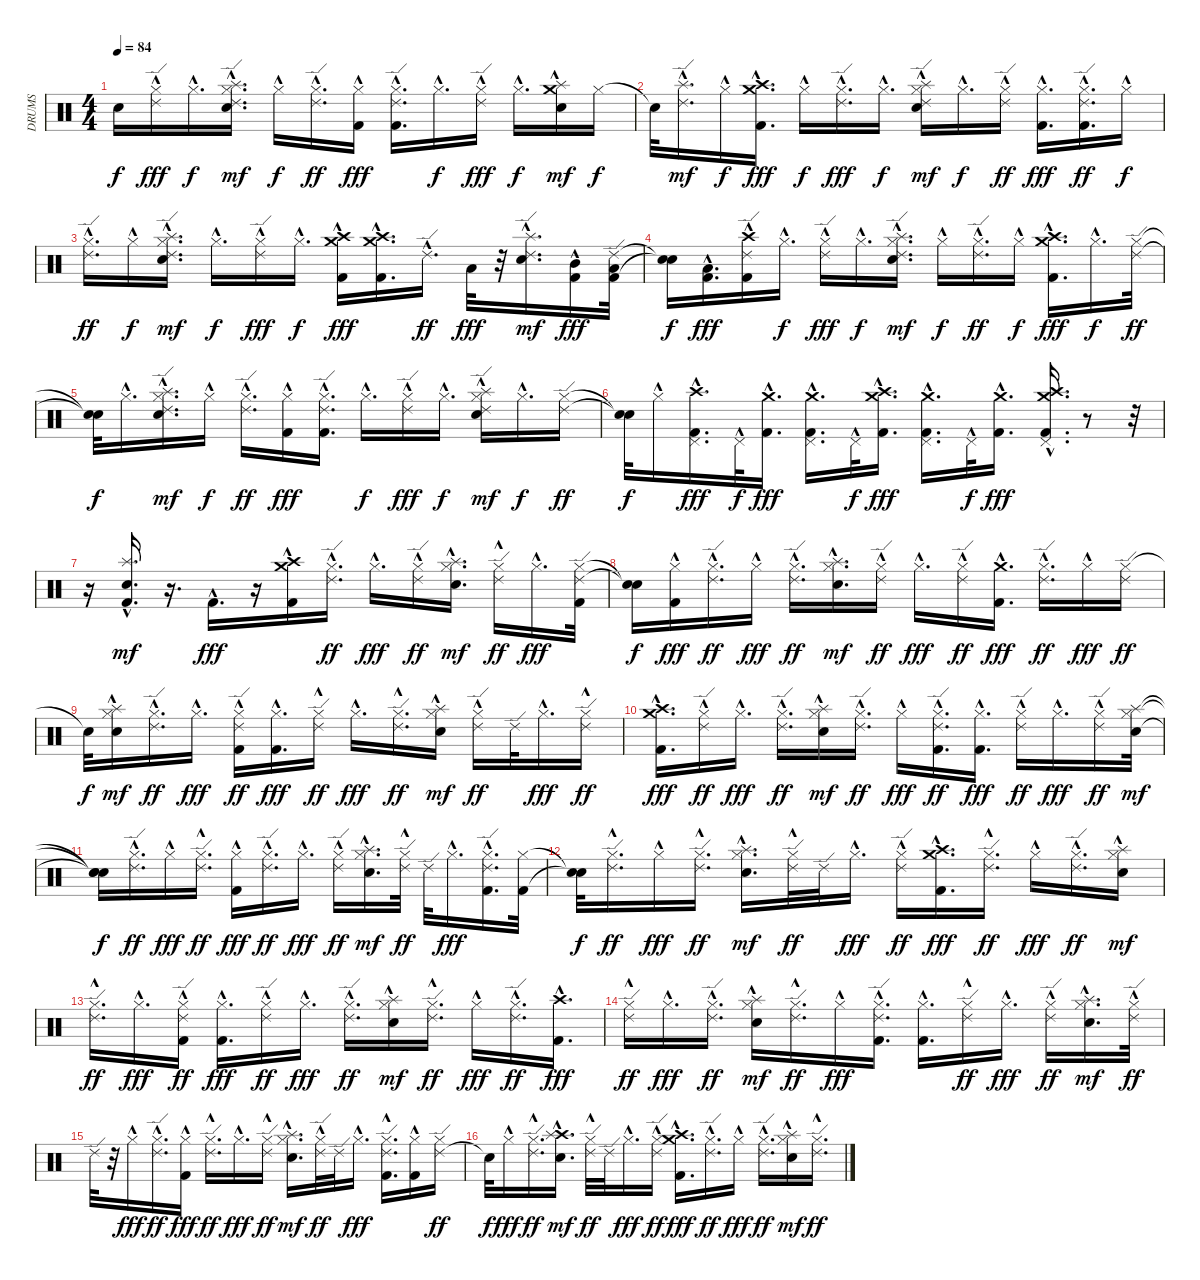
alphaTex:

\track ("DRUMS" "DRUMS") {instrument percussion}
\staff {score}
\articulation defaults
\ts (4 4)
\tempo 84
\clef neutral
\ks c "Snare (hit)"{t}.16{dy f}
("Ride (edge) 2"{hac} "Hi-Hat (closed)"{hac}).16{dy fff} "Hi-Hat (closed)"{hac}.16{d dy f} ("Hi-Hat (closed)"{hac} "Ride (edge) 2"{hac} "Snare (hit) 2"{hac} "Splash (hit)"{hac}).16{d dy mf} "Hi-Hat (closed)"{hac}.16{dy f} ("Hi-Hat (closed)"{hac} "Ride (edge) 2"{hac}).16{d dy ff} ("Kick (hit) 2"{hac} "Hi-Hat (closed)"{hac}).16{dy fff} ("Kick (hit) 2"{hac} "Ride (edge) 2"{hac} "Hi-Hat (closed)"{hac}).16{d} "Hi-Hat (closed)"{hac}.16{d dy f} ("Ride (edge) 2"{hac} "Hi-Hat (closed)"{hac}).16{dy fff} "Hi-Hat (closed)"{hac}.16{d dy f} ("Crash medium (hit)" "Snare (hit) 2"{hac} "Splash (hit)"{hac}).16{dy mf} "Hi-Hat (closed)".16{dy f} |
"Snare (hit)"{t}.32 ("Ride (edge) 2"{hac} "Splash (hit)").16{d dy mf} "Hi-Hat (closed)"{hac}.16{dy f} ("Crash medium (hit)" "Kick (hit) 2"{hac} "Crash high (hit)").16{d dy fff} "Hi-Hat (closed)"{hac}.16{dy f} ("Ride (edge) 2"{hac} "Hi-Hat (closed)"{hac}).16{d dy fff} "Hi-Hat (closed)"{hac}.16{d dy f} ("Hi-Hat (closed)"{hac} "Snare (hit) 2"{hac} "Ride (edge) 2"{hac} "Splash (hit)"{hac}).16{dy mf} "Hi-Hat (closed)"{hac}.16{d dy f} ("Hi-Hat (closed)"{hac} "Ride (edge) 2"{hac}).16{dy ff} ("Kick (hit) 2"{hac} "Hi-Hat (closed)"{hac}).16{d dy fff} ("Hi-Hat (closed)"{hac} "Kick (hit) 2"{hac} "Ride (edge) 2"{hac}).16{d dy ff} "Hi-Hat (closed)"{hac}.16{dy f} |
("Hi-Hat (closed)"{hac} "Ride (edge) 2"{hac}).16{d dy ff} "Hi-Hat (closed)"{hac}.16{dy f} ("Snare (hit) 2"{hac} "Ride (edge) 2"{hac} "Hi-Hat (closed)"{hac} "Splash (hit)"{hac}).16{d dy mf} "Hi-Hat (closed)"{hac}.16{d dy f} ("Ride (edge) 2"{hac} "Hi-Hat (closed)"{hac}).16{dy fff} "Hi-Hat (closed)"{hac}.16{d dy f} ("Crash high (hit)"{hac} "Crash medium (hit)"{hac} "Kick (hit) 2"{hac}).16{dy fff} ("Crash medium (hit)"{hac} "Crash high (hit)"{hac} "Kick (hit) 2"{hac}).16{d} "Ride (edge) 2"{hac}.16{d dy ff} "Low Tom (hit)".32{dy fff} r.32 ("Ride (edge) 2"{hac} "Snare (hit) 2"{hac} "Splash (hit)"{hac}).16{d dy mf} ("Kick (hit) 2"{hac} "Mid Tom (hit)").16{dy fff} ("Kick (hit) 2" "Ride (edge) 2" "Low Tom (hit)").32 |
("Snare (hit)"{t} "Snare (hit)"{t}).16{dy f} ("Low Floor Tom (hit)" "Kick (hit) 2"{hac}).16{d dy fff} ("Crash high (hit)" "Ride (edge) 2"{hac} "Kick (hit) 2"{hac}).16 "Hi-Hat (closed)"{hac}.16{d dy f} ("Ride (edge) 2"{hac} "Hi-Hat (closed)"{hac}).16{dy fff} "Hi-Hat (closed)"{hac}.16{d dy f} ("Snare (hit) 2"{hac} "Ride (edge) 2"{hac} "Hi-Hat (closed)"{hac} "Splash (hit)"{hac}).16{d dy mf} "Hi-Hat (closed)"{hac}.16{dy f} ("Hi-Hat (closed)"{hac} "Ride (edge) 2"{hac}).16{d dy ff} "Hi-Hat (closed)"{hac}.16{dy f} ("Crash medium (hit)" "Kick (hit) 2"{hac} "Crash high (hit)").16{d dy fff} "Hi-Hat (closed)"{hac}.16{d dy f} ("Hi-Hat (closed)" "Ride (edge) 2").32{dy ff} |
("Snare (hit)"{t} "Snare (hit)"{t}).32{dy f} "Hi-Hat (closed)"{hac}.16{d} ("Snare (hit) 2"{hac} "Hi-Hat (closed)"{hac} "Ride (edge) 2"{hac} "Splash (hit)"{hac}).16{d dy mf} "Hi-Hat (closed)"{hac}.16{dy f} ("Hi-Hat (closed)"{hac} "Ride (edge) 2"{hac}).16{d dy ff} ("Hi-Hat (closed)"{hac} "Kick (hit) 2"{hac}).16{dy fff} ("Hi-Hat (closed)"{hac} "Ride (edge) 2"{hac} "Kick (hit) 2"{hac}).16{d} "Hi-Hat (closed)"{hac}.16{d dy f} ("Ride (edge) 2"{hac} "Hi-Hat (closed)"{hac}).16{dy fff} "Hi-Hat (closed)"{hac}.16{d dy f} ("Hi-Hat (closed)"{hac} "Snare (hit) 2"{hac} "Ride (edge) 2"{hac} "Splash (hit)"{hac}).16{dy mf} "Hi-Hat (closed)"{hac}.16{d dy f} ("Hi-Hat (closed)" "Ride (edge) 2").16{dy ff} |
("Snare (hit)"{t} "Snare (hit)"{t}).32{dy f} "Hi-Hat (closed)"{hac}.16 ("Pedal Hi-Hat (hit)"{hac} "Kick (hit) 2"{hac} "Crash high (hit)"{hac}).16{d dy fff} "Pedal Hi-Hat (hit)"{hac}.32{dy f} ("Crash medium (hit)"{hac} "Kick (hit) 2"{hac}).16{d dy fff} ("Pedal Hi-Hat (hit)"{hac} "Kick (hit) 2"{hac} "Crash medium (hit)"{hac}).16{d} "Pedal Hi-Hat (hit)"{hac}.32{dy f} ("Crash high (hit)"{hac} "Crash medium (hit)"{hac} "Kick (hit) 2"{hac}).16{d dy fff} ("Pedal Hi-Hat (hit)"{hac} "Crash medium (hit)"{hac} "Kick (hit) 2"{hac}).16{d} "Pedal Hi-Hat (hit)"{hac}.32{dy f} ("Crash medium (hit)"{hac} "Kick (hit) 2"{hac}).16{d dy fff} ("Pedal Hi-Hat (hit)"{hac} "Crash medium (hit)"{hac} "Crash high (hit)"{hac} "Kick (hit) 2"{hac}).16{d} r.8 r.32 |
r.16 ("Snare (hit) 2"{hac} "Kick (hit) 2"{hac} "Splash (hit)"{hac}).16{d dy mf} r.16{d} "Kick (hit) 2"{hac}.16{d dy fff} r.16 ("Kick (hit) 2"{hac} "Crash medium (hit)"{hac} "Crash high (hit)").16 ("Hi-Hat (closed)"{hac} "Ride (edge) 2").16{d dy ff} "Hi-Hat (closed)"{hac}.16{d dy fff} ("Hi-Hat (closed)"{hac} "Ride (edge) 2").16{dy ff} ("Hi-Hat (closed)"{hac} "Snare (hit) 2"{hac} "Splash (hit)"{hac}).16{d dy mf} ("Ride (edge) 2" "Hi-Hat (closed)"{hac}).16{dy ff} "Hi-Hat (closed)"{hac}.16{d dy fff} ("Hi-Hat (closed)" "Ride (edge) 2" "Kick (hit) 2").32 |
("Snare (hit)"{t} "Snare (hit)"{t}).16{dy f} ("Kick (hit) 2"{hac} "Hi-Hat (closed)"{hac}).16{dy fff} ("Hi-Hat (closed)"{hac} "Ride (edge) 2").16{d dy ff} "Hi-Hat (closed)"{hac}.16{dy fff} ("Hi-Hat (closed)"{hac} "Ride (edge) 2").16{d dy ff} ("Snare (hit) 2"{hac} "Hi-Hat (closed)"{hac} "Splash (hit)"{hac}).16{d dy mf} ("Hi-Hat (closed)"{hac} "Ride (edge) 2").16{dy ff} "Hi-Hat (closed)"{hac}.16{d dy fff} ("Hi-Hat (closed)"{hac} "Ride (edge) 2").16{dy ff} ("Crash medium (hit)" "Kick (hit) 2"{hac}).16{d dy fff} ("Hi-Hat (closed)"{hac} "Ride (edge) 2").16{d dy ff} "Hi-Hat (closed)"{hac}.16{dy fff} ("Hi-Hat (closed)" "Ride (edge) 2").16{dy ff} |
"Snare (hit)"{t}.32{dy f} ("Snare (hit) 2"{hac} "Hi-Hat (closed)"{hac} "Splash (hit)"{hac}).16{dy mf} ("Hi-Hat (closed)"{hac} "Ride (edge) 2").16{d dy ff} "Hi-Hat (closed)"{hac}.16{d dy fff} ("Hi-Hat (closed)"{hac} "Kick (hit) 2"{hac} "Ride (edge) 2").16{dy ff} ("Hi-Hat (closed)"{hac} "Kick (hit) 2"{hac}).16{d dy fff} ("Ride (edge) 2" "Hi-Hat (closed)"{hac}).16{dy ff} "Hi-Hat (closed)"{hac}.16{d dy fff} ("Ride (edge) 2" "Hi-Hat (closed)"{hac}).16{d dy ff} ("Snare (hit) 2"{hac} "Hi-Hat (closed)"{hac} "Splash (hit)"{hac}).16{dy mf} ("Hi-Hat (closed)"{hac} "Ride (edge) 2").16{dy ff} "Ride (edge) 2".32 "Hi-Hat (closed)"{hac}.16{d dy fff} ("Ride (edge) 2" "Hi-Hat (closed)"{hac}).16{dy ff} |
("Kick (hit) 2"{hac} "Crash high (hit)"{hac} "Crash medium (hit)").16{d dy fff} ("Hi-Hat (closed)"{hac} "Ride (edge) 2").16{dy ff} "Hi-Hat (closed)"{hac}.16{d dy fff} ("Hi-Hat (closed)"{hac} "Ride (edge) 2").16{d dy ff} ("Snare (hit) 2"{hac} "Hi-Hat (closed)"{hac} "Splash (hit)"{hac}).16{dy mf} ("Hi-Hat (closed)"{hac} "Ride (edge) 2").16{d dy ff} "Hi-Hat (closed)"{hac}.16{dy fff} ("Hi-Hat (closed)"{hac} "Kick (hit) 2"{hac} "Ride (edge) 2").16{d dy ff} ("Kick (hit) 2"{hac} "Hi-Hat (closed)"{hac}).16{d dy fff} ("Hi-Hat (closed)"{hac} "Ride (edge) 2").16{dy ff} "Hi-Hat (closed)"{hac}.16{d dy fff} ("Hi-Hat (closed)"{hac} "Ride (edge) 2").16{dy ff} ("Snare (hit) 2" "Hi-Hat (closed)" "Splash (hit)").32{dy mf} |
("Snare (hit)"{t} "Snare (hit)"{t} "Snare (hit)"{t}).16{dy f} ("Hi-Hat (closed)"{hac} "Ride (edge) 2").16{d dy ff} "Hi-Hat (closed)"{hac}.16{dy fff} ("Ride (edge) 2" "Hi-Hat (closed)"{hac}).16{d dy ff} ("Kick (hit) 2"{hac} "Hi-Hat (closed)"{hac}).16{dy fff} ("Hi-Hat (closed)"{hac} "Ride (edge) 2").16{d dy ff} "Hi-Hat (closed)"{hac}.16{d dy fff} ("Hi-Hat (closed)"{hac} "Ride (edge) 2").16{dy ff} ("Hi-Hat (closed)"{hac} "Snare (hit) 2"{hac} "Splash (hit)"{hac}).16{d dy mf} ("Ride (edge) 2" "Hi-Hat (closed)"{hac}).32{dy ff} "Ride (edge) 2".32 "Hi-Hat (closed)"{hac}.16{d dy fff} ("Hi-Hat (closed)"{hac} "Ride (edge) 2" "Kick (hit) 2"{hac}).16{d} ("Kick (hit) 2" "Hi-Hat (closed)").32 |
("Snare (hit)"{t} "Snare (hit)"{t}).32{dy f} ("Ride (edge) 2" "Hi-Hat (closed)"{hac}).16{d dy ff} "Hi-Hat (closed)"{hac}.16{dy fff} ("Ride (edge) 2" "Hi-Hat (closed)"{hac}).16{d dy ff} ("Snare (hit) 2"{hac} "Hi-Hat (closed)"{hac} "Splash (hit)"{hac}).16{d dy mf} ("Ride (edge) 2" "Hi-Hat (closed)"{hac}).32{dy ff} "Ride (edge) 2".32 "Hi-Hat (closed)"{hac}.16{d dy fff} ("Hi-Hat (closed)"{hac} "Ride (edge) 2").16{dy ff} ("Kick (hit) 2"{hac} "Crash high (hit)"{hac} "Crash medium (hit)").16{d dy fff} ("Ride (edge) 2" "Hi-Hat (closed)"{hac}).16{d dy ff} "Hi-Hat (closed)"{hac}.16{dy fff} ("Hi-Hat (closed)"{hac} "Ride (edge) 2").16{d dy ff} ("Hi-Hat (closed)"{hac} "Snare (hit) 2"{hac} "Splash (hit)"{hac}).16{dy mf} |
("Ride (edge) 2" "Hi-Hat (closed)"{hac}).16{d dy ff} "Hi-Hat (closed)"{hac}.16{d dy fff} ("Kick (hit) 2"{hac} "Hi-Hat (closed)"{hac} "Ride (edge) 2").16{dy ff} ("Kick (hit) 2"{hac} "Hi-Hat (closed)"{hac}).16{d dy fff} ("Hi-Hat (closed)"{hac} "Ride (edge) 2").16{dy ff} "Hi-Hat (closed)"{hac}.16{d dy fff} ("Hi-Hat (closed)"{hac} "Ride (edge) 2").16{d dy ff} ("Snare (hit) 2"{hac} "Hi-Hat (closed)"{hac} "Splash (hit)"{hac}).16{dy mf} ("Ride (edge) 2" "Hi-Hat (closed)"{hac}).16{d dy ff} "Hi-Hat (closed)"{hac}.16{dy fff} ("Hi-Hat (closed)"{hac} "Ride (edge) 2").16{d dy ff} ("Crash high (hit)" "Kick (hit) 2"{hac}).16{d dy fff} |
("Ride (edge) 2" "Hi-Hat (closed)"{hac}).16{dy ff} "Hi-Hat (closed)"{hac}.16{d dy fff} ("Hi-Hat (closed)"{hac} "Ride (edge) 2").16{d dy ff} ("Hi-Hat (closed)"{hac} "Snare (hit) 2"{hac} "Splash (hit)"{hac}).16{dy mf} ("Ride (edge) 2" "Hi-Hat (closed)"{hac}).16{d dy ff} "Hi-Hat (closed)"{hac}.16{dy fff} ("Hi-Hat (closed)"{hac} "Ride (edge) 2" "Kick (hit) 2"{hac}).16{d} ("Kick (hit) 2"{hac} "Hi-Hat (closed)"{hac}).16{d} ("Ride (edge) 2" "Hi-Hat (closed)"{hac}).16{dy ff} "Hi-Hat (closed)"{hac}.16{d dy fff} ("Hi-Hat (closed)"{hac} "Ride (edge) 2").16{dy ff} ("Snare (hit) 2"{hac} "Hi-Hat (closed)"{hac} "Splash (hit)"{hac}).16{d dy mf} ("Hi-Hat (closed)"{hac} "Ride (edge) 2").32{dy ff} |
"Ride (edge) 2".32 r.32 "Hi-Hat (closed)"{hac}.16{dy fff} ("Hi-Hat (closed)"{hac} "Ride (edge) 2").16{d dy ff} ("Kick (hit) 2"{hac} "Hi-Hat (closed)"{hac}).16{dy fff} ("Ride (edge) 2" "Hi-Hat (closed)"{hac}).16{d dy ff} "Hi-Hat (closed)"{hac}.16{d dy fff} ("Ride (edge) 2" "Hi-Hat (closed)"{hac}).16{dy ff} ("Snare (hit) 2"{hac} "Hi-Hat (closed)"{hac} "Splash (hit)"{hac}).16{d dy mf} ("Hi-Hat (closed)"{hac} "Ride (edge) 2").32{dy ff} "Ride (edge) 2".32 "Hi-Hat (closed)"{hac}.16{d dy fff} ("Ride (edge) 2" "Kick (hit) 2"{hac} "Hi-Hat (closed)"{hac}).16{d} ("Kick (hit) 2"{hac} "Hi-Hat (closed)"{hac}).16 ("Ride (edge) 2" "Hi-Hat (closed)").16{dy ff} |
"Snare (hit)"{t}.32{dy f} "Hi-Hat (closed)"{hac}.16{dy fff} ("Ride (edge) 2" "Hi-Hat (closed)"{hac}).16{d dy ff} ("Snare (hit) 2"{hac} "Crash high (hit)" "Splash (hit)"{hac}).16{d dy mf} ("Ride (edge) 2" "Hi-Hat (closed)"{hac}).32{dy ff} "Ride (edge) 2".32 "Hi-Hat (closed)"{hac}.16{d dy fff} ("Hi-Hat (closed)"{hac} "Ride (edge) 2").16{dy ff} ("Kick (hit) 2"{hac} "Crash medium (hit)" "Crash high (hit)"{hac}).16{d dy fff} ("Hi-Hat (closed)"{hac} "Ride (edge) 2").16{d dy ff} "Hi-Hat (closed)"{hac}.16{dy fff} ("Hi-Hat (closed)"{hac} "Ride (edge) 2").16{d dy ff} ("Snare (hit) 2"{hac} "Hi-Hat (closed)"{hac} "Splash (hit)"{hac}).16{dy mf} ("Ride (edge) 2" "Hi-Hat (closed)"{hac}).16{d dy ff}
